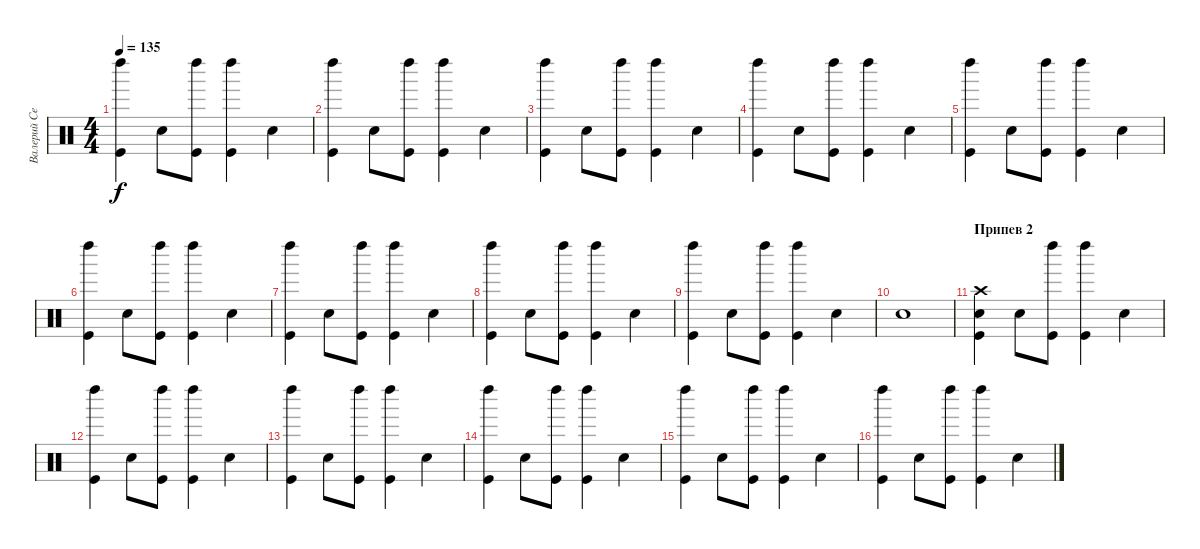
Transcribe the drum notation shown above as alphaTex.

\track ("Валерий Северин" "Валерий Се") {instrument percussion}
\staff {score}
\articulation defaults
\ts (4 4)
\tempo 135
\clef neutral
\ks c
("Kick (hit)" "Left Maraca (hit)").4{dy f} "Snare (hit) 2".8 ("Kick (hit)" "Left Maraca (hit)").8 ("Kick (hit)" "Left Maraca (hit)").4 "Snare (hit) 2".4 |
("Kick (hit)" "Left Maraca (hit)").4 "Snare (hit) 2".8 ("Kick (hit)" "Left Maraca (hit)").8 ("Kick (hit)" "Left Maraca (hit)").4 "Snare (hit) 2".4 |
("Kick (hit)" "Left Maraca (hit)").4 "Snare (hit) 2".8 ("Kick (hit)" "Left Maraca (hit)").8 ("Kick (hit)" "Left Maraca (hit)").4 "Snare (hit) 2".4 |
("Kick (hit)" "Left Maraca (hit)").4 "Snare (hit) 2".8 ("Kick (hit)" "Left Maraca (hit)").8 ("Kick (hit)" "Left Maraca (hit)").4 "Snare (hit) 2".4 |
("Kick (hit)" "Left Maraca (hit)").4 "Snare (hit) 2".8 ("Kick (hit)" "Left Maraca (hit)").8 ("Kick (hit)" "Left Maraca (hit)").4 "Snare (hit) 2".4 |
("Kick (hit)" "Left Maraca (hit)").4 "Snare (hit) 2".8 ("Kick (hit)" "Left Maraca (hit)").8 ("Kick (hit)" "Left Maraca (hit)").4 "Snare (hit) 2".4 |
("Kick (hit)" "Left Maraca (hit)").4 "Snare (hit) 2".8 ("Kick (hit)" "Left Maraca (hit)").8 ("Kick (hit)" "Left Maraca (hit)").4 "Snare (hit) 2".4 |
("Kick (hit)" "Left Maraca (hit)").4 "Snare (hit) 2".8 ("Kick (hit)" "Left Maraca (hit)").8 ("Kick (hit)" "Left Maraca (hit)").4 "Snare (hit) 2".4 |
("Kick (hit)" "Left Maraca (hit)").4 "Snare (hit) 2".8 ("Kick (hit)" "Left Maraca (hit)").8 ("Kick (hit)" "Left Maraca (hit)").4 "Snare (hit) 2".4 |
"Snare (hit) 2".1 |
\section ("" "Припев 2")
("Crash high (hit)" "Kick (hit)" "Snare (hit) 2").4 "Snare (hit) 2".8 ("Kick (hit)" "Left Maraca (hit)").8 ("Kick (hit)" "Left Maraca (hit)").4 "Snare (hit) 2".4 |
("Kick (hit)" "Left Maraca (hit)").4 "Snare (hit) 2".8 ("Kick (hit)" "Left Maraca (hit)").8 ("Kick (hit)" "Left Maraca (hit)").4 "Snare (hit) 2".4 |
("Kick (hit)" "Left Maraca (hit)").4 "Snare (hit) 2".8 ("Kick (hit)" "Left Maraca (hit)").8 ("Kick (hit)" "Left Maraca (hit)").4 "Snare (hit) 2".4 |
("Kick (hit)" "Left Maraca (hit)").4 "Snare (hit) 2".8 ("Kick (hit)" "Left Maraca (hit)").8 ("Kick (hit)" "Left Maraca (hit)").4 "Snare (hit) 2".4 |
("Kick (hit)" "Left Maraca (hit)").4 "Snare (hit) 2".8 ("Kick (hit)" "Left Maraca (hit)").8 ("Kick (hit)" "Left Maraca (hit)").4 "Snare (hit) 2".4 |
("Kick (hit)" "Left Maraca (hit)").4 "Snare (hit) 2".8 ("Kick (hit)" "Left Maraca (hit)").8 ("Kick (hit)" "Left Maraca (hit)").4 "Snare (hit) 2".4
